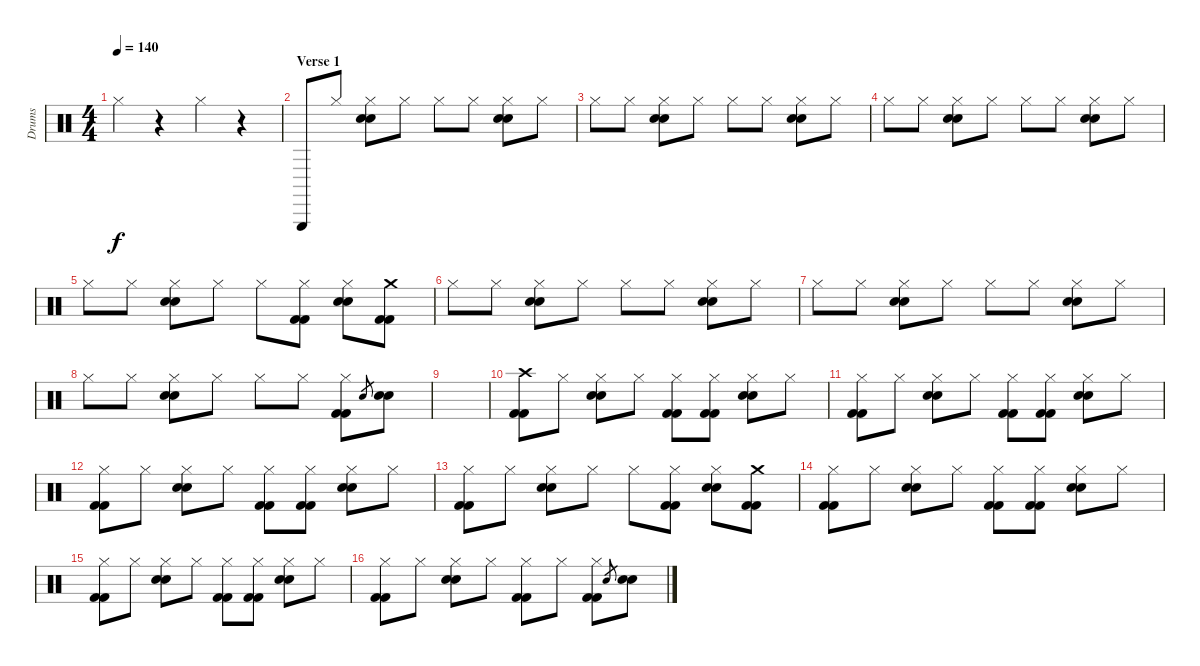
\track ("Drums" "Drums") {instrument percussion}
\staff {score}
\articulation defaults
\ts (4 4)
\tempo 140
\clef neutral
\ks c "Hi-Hat (closed)".4{dy f}
r.4 "Hi-Hat (closed)".4 r.4 |
\section ("" "Verse 1")
"Triangle (hit)".8 "Hi-Hat (closed)".8 ("Hi-Hat (closed)" "Snare (hit) 2" "Snare (hit) 2").8 "Hi-Hat (closed)".8 "Hi-Hat (closed)".8 "Hi-Hat (closed)".8 ("Hi-Hat (closed)" "Snare (hit) 2" "Snare (hit) 2").8 "Hi-Hat (closed)".8 |
"Hi-Hat (closed)".8 "Hi-Hat (closed)".8 ("Hi-Hat (closed)" "Snare (hit) 2" "Snare (hit) 2").8 "Hi-Hat (closed)".8 "Hi-Hat (closed)".8 "Hi-Hat (closed)".8 ("Hi-Hat (closed)" "Snare (hit) 2" "Snare (hit) 2").8 "Hi-Hat (closed)".8 |
"Hi-Hat (closed)".8 "Hi-Hat (closed)".8 ("Hi-Hat (closed)" "Snare (hit) 2" "Snare (hit) 2").8 "Hi-Hat (closed)".8 "Hi-Hat (closed)".8 "Hi-Hat (closed)".8 ("Hi-Hat (closed)" "Snare (hit) 2" "Snare (hit) 2").8 "Hi-Hat (closed)".8 |
"Hi-Hat (closed)".8 "Hi-Hat (closed)".8 ("Hi-Hat (closed)" "Snare (hit) 2" "Snare (hit) 2").8 "Hi-Hat (closed)".8 "Hi-Hat (closed)".8 ("Hi-Hat (closed)" "Kick (hit) 2" "Kick (hit) 2").8 ("Hi-Hat (closed)" "Snare (hit) 2" "Snare (hit) 2").8 ("Crash medium (hit)" "Kick (hit) 2" "Kick (hit) 2").8 |
"Hi-Hat (closed)".8 "Hi-Hat (closed)".8 ("Hi-Hat (closed)" "Snare (hit) 2" "Snare (hit) 2").8 "Hi-Hat (closed)".8 "Hi-Hat (closed)".8 "Hi-Hat (closed)".8 ("Hi-Hat (closed)" "Snare (hit) 2" "Snare (hit) 2").8 "Hi-Hat (closed)".8 |
"Hi-Hat (closed)".8 "Hi-Hat (closed)".8 ("Hi-Hat (closed)" "Snare (hit) 2" "Snare (hit) 2").8 "Hi-Hat (closed)".8 "Hi-Hat (closed)".8 "Hi-Hat (closed)".8 ("Hi-Hat (closed)" "Snare (hit) 2" "Snare (hit) 2").8 "Hi-Hat (closed)".8 |
"Hi-Hat (closed)".8 "Hi-Hat (closed)".8 ("Hi-Hat (closed)" "Snare (hit) 2" "Snare (hit) 2").8 "Hi-Hat (closed)".8 "Hi-Hat (closed)".8 "Hi-Hat (closed)".8 ("Hi-Hat (closed)" "Kick (hit) 2" "Kick (hit) 2").8 "Snare (hit) 2".8{gr} ("Snare (hit) 2" "Snare (hit) 2").8 |
|
("Crash high (hit)" "Kick (hit) 2" "Kick (hit) 2").8 "Hi-Hat (closed)".8 ("Hi-Hat (closed)" "Snare (hit) 2" "Snare (hit) 2").8 "Hi-Hat (closed)".8 ("Hi-Hat (closed)" "Kick (hit) 2" "Kick (hit) 2").8 ("Hi-Hat (closed)" "Kick (hit) 2" "Kick (hit) 2").8 ("Hi-Hat (closed)" "Snare (hit) 2" "Snare (hit) 2").8 "Hi-Hat (closed)".8 |
("Hi-Hat (closed)" "Kick (hit) 2" "Kick (hit) 2").8 "Hi-Hat (closed)".8 ("Hi-Hat (closed)" "Snare (hit) 2" "Snare (hit) 2").8 "Hi-Hat (closed)".8 ("Hi-Hat (closed)" "Kick (hit) 2" "Kick (hit) 2").8 ("Hi-Hat (closed)" "Kick (hit) 2" "Kick (hit) 2").8 ("Hi-Hat (closed)" "Snare (hit) 2" "Snare (hit) 2").8 "Hi-Hat (closed)".8 |
("Hi-Hat (closed)" "Kick (hit) 2" "Kick (hit) 2").8 "Hi-Hat (closed)".8 ("Hi-Hat (closed)" "Snare (hit) 2" "Snare (hit) 2").8 "Hi-Hat (closed)".8 ("Hi-Hat (closed)" "Kick (hit) 2" "Kick (hit) 2").8 ("Hi-Hat (closed)" "Kick (hit) 2" "Kick (hit) 2").8 ("Hi-Hat (closed)" "Snare (hit) 2" "Snare (hit) 2").8 "Hi-Hat (closed)".8 |
("Hi-Hat (closed)" "Kick (hit) 2" "Kick (hit) 2").8 "Hi-Hat (closed)".8 ("Hi-Hat (closed)" "Snare (hit) 2" "Snare (hit) 2").8 "Hi-Hat (closed)".8 "Hi-Hat (closed)".8 ("Hi-Hat (closed)" "Kick (hit) 2" "Kick (hit) 2").8 ("Hi-Hat (closed)" "Snare (hit) 2" "Snare (hit) 2").8 ("Crash medium (hit)" "Kick (hit) 2" "Kick (hit) 2").8 |
("Hi-Hat (closed)" "Kick (hit) 2" "Kick (hit) 2").8 "Hi-Hat (closed)".8 ("Hi-Hat (closed)" "Snare (hit) 2" "Snare (hit) 2").8 "Hi-Hat (closed)".8 ("Hi-Hat (closed)" "Kick (hit) 2" "Kick (hit) 2").8 ("Hi-Hat (closed)" "Kick (hit) 2" "Kick (hit) 2").8 ("Hi-Hat (closed)" "Snare (hit) 2" "Snare (hit) 2").8 "Hi-Hat (closed)".8 |
("Hi-Hat (closed)" "Kick (hit) 2" "Kick (hit) 2").8 "Hi-Hat (closed)".8 ("Hi-Hat (closed)" "Snare (hit) 2" "Snare (hit) 2").8 "Hi-Hat (closed)".8 ("Hi-Hat (closed)" "Kick (hit) 2" "Kick (hit) 2").8 ("Hi-Hat (closed)" "Kick (hit) 2" "Kick (hit) 2").8 ("Hi-Hat (closed)" "Snare (hit) 2" "Snare (hit) 2").8 "Hi-Hat (closed)".8 |
("Hi-Hat (closed)" "Kick (hit) 2" "Kick (hit) 2").8 "Hi-Hat (closed)".8 ("Hi-Hat (closed)" "Snare (hit) 2" "Snare (hit) 2").8 "Hi-Hat (closed)".8 ("Hi-Hat (closed)" "Kick (hit) 2" "Kick (hit) 2").8 "Hi-Hat (closed)".8 ("Hi-Hat (closed)" "Kick (hit) 2" "Kick (hit) 2").8 "Snare (hit) 2".8{gr} ("Snare (hit) 2" "Snare (hit) 2").8
